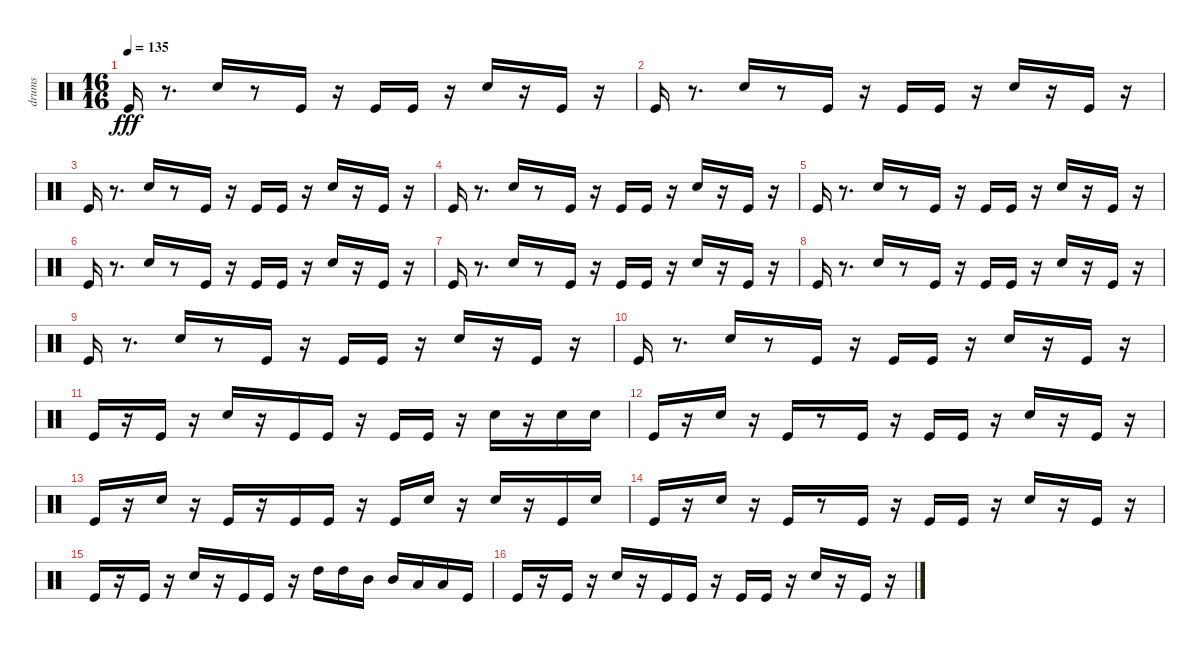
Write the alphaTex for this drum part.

\track ("drums" "drums") {instrument percussion}
\staff {score}
\articulation defaults
\ts (16 16)
\tempo 135
\clef neutral
\ks c "Kick (hit)".16{dy fff}
r.8{d} "Snare (hit) 2".16 r.8 "Kick (hit)".16 r.16 "Kick (hit)".16 "Kick (hit)".16 r.16 "Snare (hit) 2".16 r.16 "Kick (hit)".16 r.16 |
"Kick (hit)".16 r.8{d} "Snare (hit) 2".16 r.8 "Kick (hit)".16 r.16 "Kick (hit)".16 "Kick (hit)".16 r.16 "Snare (hit) 2".16 r.16 "Kick (hit)".16 r.16 |
"Kick (hit)".16 r.8{d} "Snare (hit) 2".16 r.8 "Kick (hit)".16 r.16 "Kick (hit)".16 "Kick (hit)".16 r.16 "Snare (hit) 2".16 r.16 "Kick (hit)".16 r.16 |
"Kick (hit)".16 r.8{d} "Snare (hit) 2".16 r.8 "Kick (hit)".16 r.16 "Kick (hit)".16 "Kick (hit)".16 r.16 "Snare (hit) 2".16 r.16 "Kick (hit)".16 r.16 |
"Kick (hit)".16 r.8{d} "Snare (hit) 2".16 r.8 "Kick (hit)".16 r.16 "Kick (hit)".16 "Kick (hit)".16 r.16 "Snare (hit) 2".16 r.16 "Kick (hit)".16 r.16 |
"Kick (hit)".16 r.8{d} "Snare (hit) 2".16 r.8 "Kick (hit)".16 r.16 "Kick (hit)".16 "Kick (hit)".16 r.16 "Snare (hit) 2".16 r.16 "Kick (hit)".16 r.16 |
"Kick (hit)".16 r.8{d} "Snare (hit) 2".16 r.8 "Kick (hit)".16 r.16 "Kick (hit)".16 "Kick (hit)".16 r.16 "Snare (hit) 2".16 r.16 "Kick (hit)".16 r.16 |
"Kick (hit)".16 r.8{d} "Snare (hit) 2".16 r.8 "Kick (hit)".16 r.16 "Kick (hit)".16 "Kick (hit)".16 r.16 "Snare (hit) 2".16 r.16 "Kick (hit)".16 r.16 |
"Kick (hit)".16 r.8{d} "Snare (hit) 2".16 r.8 "Kick (hit)".16 r.16 "Kick (hit)".16 "Kick (hit)".16 r.16 "Snare (hit) 2".16 r.16 "Kick (hit)".16 r.16 |
"Kick (hit)".16 r.8{d} "Snare (hit) 2".16 r.8 "Kick (hit)".16 r.16 "Kick (hit)".16 "Kick (hit)".16 r.16 "Snare (hit) 2".16 r.16 "Kick (hit)".16 r.16 |
"Kick (hit)".16 r.16 "Kick (hit)".16 r.16 "Snare (hit) 2".16 r.16 "Kick (hit)".16 "Kick (hit)".16 r.16 "Kick (hit)".16 "Kick (hit)".16 r.16 "Snare (hit) 2".16 r.16 "Snare (hit) 2".16 "Snare (hit) 2".16 |
"Kick (hit)".16 r.16 "Snare (hit) 2".16 r.16 "Kick (hit)".16 r.8 "Kick (hit)".16 r.16 "Kick (hit)".16 "Kick (hit)".16 r.16 "Snare (hit) 2".16 r.16 "Kick (hit)".16 r.16 |
"Kick (hit)".16 r.16 "Snare (hit) 2".16 r.16 "Kick (hit)".16 r.16 "Kick (hit)".16 "Kick (hit)".16 r.16 "Kick (hit)".16 "Snare (hit) 2".16 r.16 "Snare (hit) 2".16 r.16 "Kick (hit)".16 "Snare (hit) 2".16 |
"Kick (hit)".16 r.16 "Snare (hit) 2".16 r.16 "Kick (hit)".16 r.8 "Kick (hit)".16 r.16 "Kick (hit)".16 "Kick (hit)".16 r.16 "Snare (hit) 2".16 r.16 "Kick (hit)".16 r.16 |
"Kick (hit)".16 r.16 "Kick (hit)".16 r.16 "Snare (hit) 2".16 r.16 "Kick (hit)".16 "Kick (hit)".16 r.16 "High Tom (hit)".16 "High Tom (hit)".16 "Mid Tom (hit)".16 "Mid Tom (hit)".16 "Low Tom (hit)".16 "Low Tom (hit)".16 "Kick (hit)".16 |
"Kick (hit)".16 r.16 "Kick (hit)".16 r.16 "Snare (hit) 2".16 r.16 "Kick (hit)".16 "Kick (hit)".16 r.16 "Kick (hit)".16 "Kick (hit)".16 r.16 "Snare (hit) 2".16 r.16 "Kick (hit)".16 r.16
